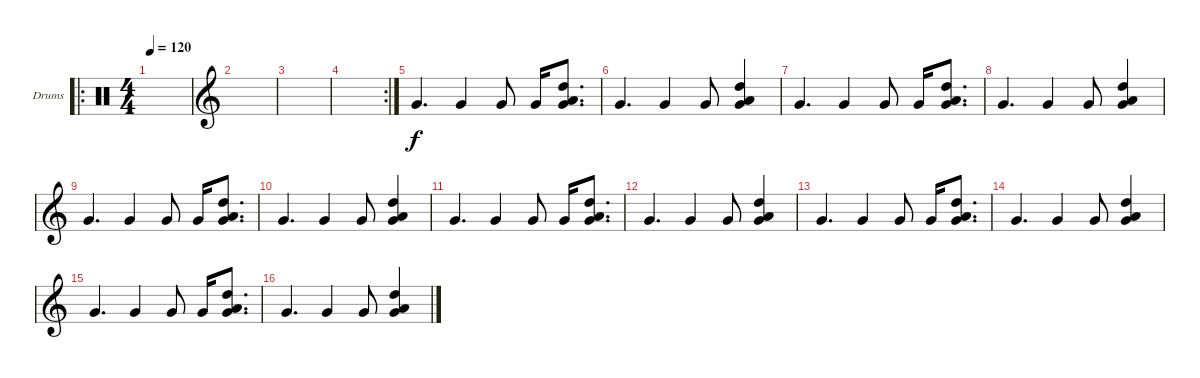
\defaultSystemsLayout 4
\bracketExtendMode groupsimilarinstruments
\firstSystemTrackNameOrientation horizontal
\otherSystemsTrackNameOrientation horizontal
\track ("Drumkit" "Drums") {instrument percussion}
\staff {score}
\articulation defaults
\ro
\ts (4 4)
\tempo 120
\clef neutral
\ks c
|
\clef g2
|
|
\rc 2
|
"Very Low Tom (hit)".4{d} "Very Low Tom (hit)".4 "Very Low Tom (hit)".8 "Very Low Tom (hit)".16 ("Very Low Tom (hit)" "High Tom (hit)" "Low Tom (hit)").8{d} |
"Very Low Tom (hit)".4{d} "Very Low Tom (hit)".4 "Very Low Tom (hit)".8 ("Very Low Tom (hit)" "High Tom (hit)" "Low Tom (hit)").4 |
"Very Low Tom (hit)".4{d} "Very Low Tom (hit)".4 "Very Low Tom (hit)".8 "Very Low Tom (hit)".16 ("Very Low Tom (hit)" "High Tom (hit)" "Low Tom (hit)").8{d} |
"Very Low Tom (hit)".4{d} "Very Low Tom (hit)".4 "Very Low Tom (hit)".8 ("Very Low Tom (hit)" "High Tom (hit)" "Low Tom (hit)").4 |
"Very Low Tom (hit)".4{d} "Very Low Tom (hit)".4 "Very Low Tom (hit)".8 "Very Low Tom (hit)".16 ("Very Low Tom (hit)" "High Tom (hit)" "Low Tom (hit)").8{d} |
"Very Low Tom (hit)".4{d} "Very Low Tom (hit)".4 "Very Low Tom (hit)".8 ("Very Low Tom (hit)" "High Tom (hit)" "Low Tom (hit)").4 |
"Very Low Tom (hit)".4{d} "Very Low Tom (hit)".4 "Very Low Tom (hit)".8 "Very Low Tom (hit)".16 ("Very Low Tom (hit)" "High Tom (hit)" "Low Tom (hit)").8{d} |
"Very Low Tom (hit)".4{d} "Very Low Tom (hit)".4 "Very Low Tom (hit)".8 ("Very Low Tom (hit)" "High Tom (hit)" "Low Tom (hit)").4 |
"Very Low Tom (hit)".4{d dy f} "Very Low Tom (hit)".4 "Very Low Tom (hit)".8 "Very Low Tom (hit)".16 ("Very Low Tom (hit)" "High Tom (hit)" "Low Tom (hit)").8{d} |
"Very Low Tom (hit)".4{d} "Very Low Tom (hit)".4 "Very Low Tom (hit)".8 ("Very Low Tom (hit)" "High Tom (hit)" "Low Tom (hit)").4 |
"Very Low Tom (hit)".4{d} "Very Low Tom (hit)".4 "Very Low Tom (hit)".8 "Very Low Tom (hit)".16 ("Very Low Tom (hit)" "High Tom (hit)" "Low Tom (hit)").8{d} |
"Very Low Tom (hit)".4{d} "Very Low Tom (hit)".4 "Very Low Tom (hit)".8 ("Very Low Tom (hit)" "High Tom (hit)" "Low Tom (hit)").4
